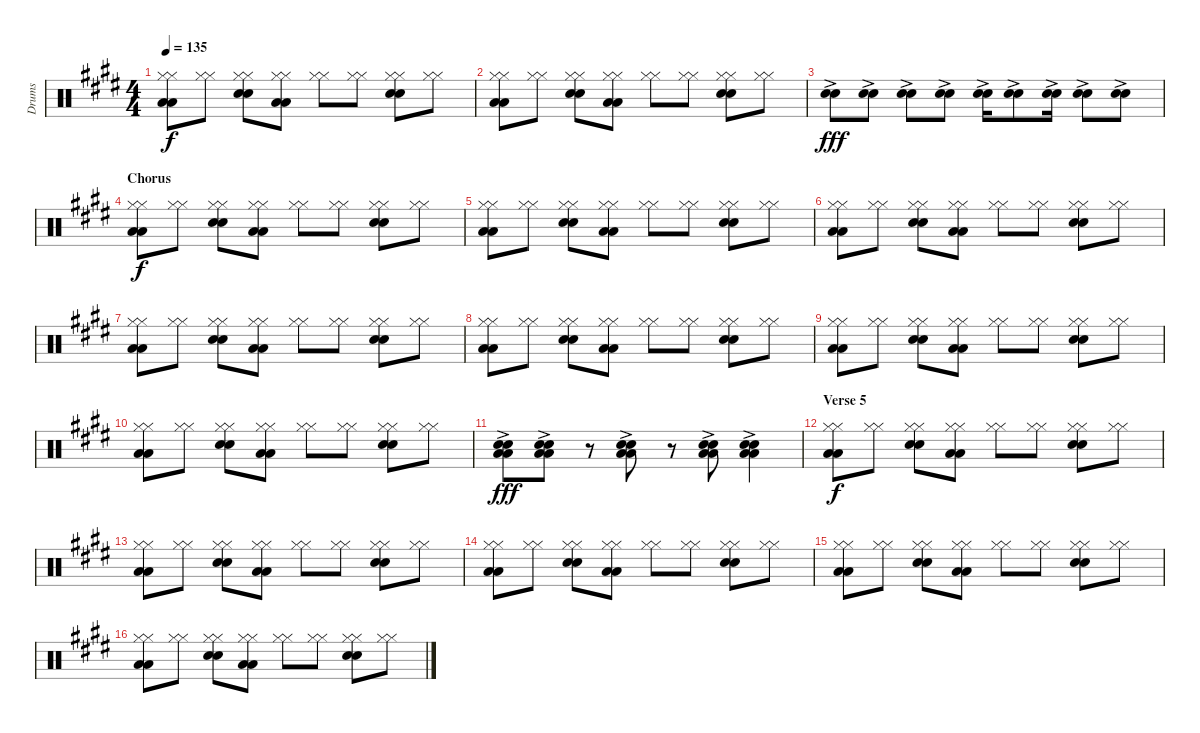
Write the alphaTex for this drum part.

\track ("Drums" "Drums") {instrument percussion}
\staff {score}
\articulation defaults
\ts (4 4)
\tempo 135
\clef neutral
\ks e
("Hi-Hat (closed)" "Hi-Hat (closed)" "Low Floor Tom (hit)" "Low Floor Tom (hit)").8{dy f} ("Hi-Hat (closed)" "Hi-Hat (closed)").8 ("Hi-Hat (closed)" "Hi-Hat (closed)" "Electric Snare (hit)" "Electric Snare (hit)").8 ("Hi-Hat (closed)" "Hi-Hat (closed)" "Low Floor Tom (hit)" "Low Floor Tom (hit)").8 ("Hi-Hat (closed)" "Hi-Hat (closed)").8 ("Hi-Hat (closed)" "Hi-Hat (closed)").8 ("Hi-Hat (closed)" "Hi-Hat (closed)" "Electric Snare (hit)" "Electric Snare (hit)").8 ("Hi-Hat (closed)" "Hi-Hat (closed)").8 |
("Hi-Hat (closed)" "Hi-Hat (closed)" "Low Floor Tom (hit)" "Low Floor Tom (hit)").8 ("Hi-Hat (closed)" "Hi-Hat (closed)").8 ("Hi-Hat (closed)" "Hi-Hat (closed)" "Electric Snare (hit)" "Electric Snare (hit)").8 ("Hi-Hat (closed)" "Hi-Hat (closed)" "Low Floor Tom (hit)" "Low Floor Tom (hit)").8 ("Hi-Hat (closed)" "Hi-Hat (closed)").8 ("Hi-Hat (closed)" "Hi-Hat (closed)").8 ("Hi-Hat (closed)" "Hi-Hat (closed)" "Electric Snare (hit)" "Electric Snare (hit)").8 ("Hi-Hat (closed)" "Hi-Hat (closed)").8 |
("Electric Snare (hit)"{ac} "Electric Snare (hit)"{ac}).8{dy fff} ("Electric Snare (hit)"{ac} "Electric Snare (hit)"{ac}).8 ("Electric Snare (hit)"{ac} "Electric Snare (hit)"{ac}).8 ("Electric Snare (hit)"{ac} "Electric Snare (hit)"{ac}).8 ("Electric Snare (hit)"{ac} "Electric Snare (hit)"{ac}).16 ("Electric Snare (hit)"{ac} "Electric Snare (hit)"{ac}).8 ("Electric Snare (hit)"{ac} "Electric Snare (hit)"{ac}).16 ("Electric Snare (hit)"{ac} "Electric Snare (hit)"{ac}).8 ("Electric Snare (hit)"{ac} "Electric Snare (hit)"{ac}).8 |
\section ("" "Chorus")
("Hi-Hat (closed)" "Hi-Hat (closed)" "Low Floor Tom (hit)" "Low Floor Tom (hit)").8{dy f} ("Hi-Hat (closed)" "Hi-Hat (closed)").8 ("Hi-Hat (closed)" "Hi-Hat (closed)" "Electric Snare (hit)" "Electric Snare (hit)").8 ("Hi-Hat (closed)" "Hi-Hat (closed)" "Low Floor Tom (hit)" "Low Floor Tom (hit)").8 ("Hi-Hat (closed)" "Hi-Hat (closed)").8 ("Hi-Hat (closed)" "Hi-Hat (closed)").8 ("Hi-Hat (closed)" "Hi-Hat (closed)" "Electric Snare (hit)" "Electric Snare (hit)").8 ("Hi-Hat (closed)" "Hi-Hat (closed)").8 |
("Hi-Hat (closed)" "Hi-Hat (closed)" "Low Floor Tom (hit)" "Low Floor Tom (hit)").8 ("Hi-Hat (closed)" "Hi-Hat (closed)").8 ("Hi-Hat (closed)" "Hi-Hat (closed)" "Electric Snare (hit)" "Electric Snare (hit)").8 ("Hi-Hat (closed)" "Hi-Hat (closed)" "Low Floor Tom (hit)" "Low Floor Tom (hit)").8 ("Hi-Hat (closed)" "Hi-Hat (closed)").8 ("Hi-Hat (closed)" "Hi-Hat (closed)").8 ("Hi-Hat (closed)" "Hi-Hat (closed)" "Electric Snare (hit)" "Electric Snare (hit)").8 ("Hi-Hat (closed)" "Hi-Hat (closed)").8 |
("Hi-Hat (closed)" "Hi-Hat (closed)" "Low Floor Tom (hit)" "Low Floor Tom (hit)").8 ("Hi-Hat (closed)" "Hi-Hat (closed)").8 ("Hi-Hat (closed)" "Hi-Hat (closed)" "Electric Snare (hit)" "Electric Snare (hit)").8 ("Hi-Hat (closed)" "Hi-Hat (closed)" "Low Floor Tom (hit)" "Low Floor Tom (hit)").8 ("Hi-Hat (closed)" "Hi-Hat (closed)").8 ("Hi-Hat (closed)" "Hi-Hat (closed)").8 ("Hi-Hat (closed)" "Hi-Hat (closed)" "Electric Snare (hit)" "Electric Snare (hit)").8 ("Hi-Hat (closed)" "Hi-Hat (closed)").8 |
("Hi-Hat (closed)" "Hi-Hat (closed)" "Low Floor Tom (hit)" "Low Floor Tom (hit)").8 ("Hi-Hat (closed)" "Hi-Hat (closed)").8 ("Hi-Hat (closed)" "Hi-Hat (closed)" "Electric Snare (hit)" "Electric Snare (hit)").8 ("Hi-Hat (closed)" "Hi-Hat (closed)" "Low Floor Tom (hit)" "Low Floor Tom (hit)").8 ("Hi-Hat (closed)" "Hi-Hat (closed)").8 ("Hi-Hat (closed)" "Hi-Hat (closed)").8 ("Hi-Hat (closed)" "Hi-Hat (closed)" "Electric Snare (hit)" "Electric Snare (hit)").8 ("Hi-Hat (closed)" "Hi-Hat (closed)").8 |
("Hi-Hat (closed)" "Hi-Hat (closed)" "Low Floor Tom (hit)" "Low Floor Tom (hit)").8 ("Hi-Hat (closed)" "Hi-Hat (closed)").8 ("Hi-Hat (closed)" "Hi-Hat (closed)" "Electric Snare (hit)" "Electric Snare (hit)").8 ("Hi-Hat (closed)" "Hi-Hat (closed)" "Low Floor Tom (hit)" "Low Floor Tom (hit)").8 ("Hi-Hat (closed)" "Hi-Hat (closed)").8 ("Hi-Hat (closed)" "Hi-Hat (closed)").8 ("Hi-Hat (closed)" "Hi-Hat (closed)" "Electric Snare (hit)" "Electric Snare (hit)").8 ("Hi-Hat (closed)" "Hi-Hat (closed)").8 |
("Hi-Hat (closed)" "Hi-Hat (closed)" "Low Floor Tom (hit)" "Low Floor Tom (hit)").8 ("Hi-Hat (closed)" "Hi-Hat (closed)").8 ("Hi-Hat (closed)" "Hi-Hat (closed)" "Electric Snare (hit)" "Electric Snare (hit)").8 ("Hi-Hat (closed)" "Hi-Hat (closed)" "Low Floor Tom (hit)" "Low Floor Tom (hit)").8 ("Hi-Hat (closed)" "Hi-Hat (closed)").8 ("Hi-Hat (closed)" "Hi-Hat (closed)").8 ("Hi-Hat (closed)" "Hi-Hat (closed)" "Electric Snare (hit)" "Electric Snare (hit)").8 ("Hi-Hat (closed)" "Hi-Hat (closed)").8 |
("Hi-Hat (closed)" "Hi-Hat (closed)" "Low Floor Tom (hit)" "Low Floor Tom (hit)").8 ("Hi-Hat (closed)" "Hi-Hat (closed)").8 ("Hi-Hat (closed)" "Hi-Hat (closed)" "Electric Snare (hit)" "Electric Snare (hit)").8 ("Hi-Hat (closed)" "Hi-Hat (closed)" "Low Floor Tom (hit)" "Low Floor Tom (hit)").8 ("Hi-Hat (closed)" "Hi-Hat (closed)").8 ("Hi-Hat (closed)" "Hi-Hat (closed)").8 ("Hi-Hat (closed)" "Hi-Hat (closed)" "Electric Snare (hit)" "Electric Snare (hit)").8 ("Hi-Hat (closed)" "Hi-Hat (closed)").8 |
("Low Tom (hit)"{ac} "Low Tom (hit)"{ac} "Electric Snare (hit)"{ac} "Electric Snare (hit)"{ac}).8{dy fff} ("Low Tom (hit)"{ac} "Low Tom (hit)"{ac} "Electric Snare (hit)"{ac} "Electric Snare (hit)"{ac}).8 r.8 ("Low Tom (hit)"{ac} "Low Tom (hit)"{ac} "Electric Snare (hit)"{ac} "Electric Snare (hit)"{ac}).8 r.8 ("Low Tom (hit)"{ac} "Low Tom (hit)"{ac} "Electric Snare (hit)"{ac} "Electric Snare (hit)"{ac}).8 ("Low Tom (hit)"{ac} "Low Tom (hit)"{ac} "Electric Snare (hit)"{ac} "Electric Snare (hit)"{ac}).4 |
\section ("" "Verse 5")
("Hi-Hat (closed)" "Hi-Hat (closed)" "Low Floor Tom (hit)" "Low Floor Tom (hit)").8{dy f} ("Hi-Hat (closed)" "Hi-Hat (closed)").8 ("Hi-Hat (closed)" "Hi-Hat (closed)" "Electric Snare (hit)" "Electric Snare (hit)").8 ("Hi-Hat (closed)" "Hi-Hat (closed)" "Low Floor Tom (hit)" "Low Floor Tom (hit)").8 ("Hi-Hat (closed)" "Hi-Hat (closed)").8 ("Hi-Hat (closed)" "Hi-Hat (closed)").8 ("Hi-Hat (closed)" "Hi-Hat (closed)" "Electric Snare (hit)" "Electric Snare (hit)").8 ("Hi-Hat (closed)" "Hi-Hat (closed)").8 |
("Hi-Hat (closed)" "Hi-Hat (closed)" "Low Floor Tom (hit)" "Low Floor Tom (hit)").8 ("Hi-Hat (closed)" "Hi-Hat (closed)").8 ("Hi-Hat (closed)" "Hi-Hat (closed)" "Electric Snare (hit)" "Electric Snare (hit)").8 ("Hi-Hat (closed)" "Hi-Hat (closed)" "Low Floor Tom (hit)" "Low Floor Tom (hit)").8 ("Hi-Hat (closed)" "Hi-Hat (closed)").8 ("Hi-Hat (closed)" "Hi-Hat (closed)").8 ("Hi-Hat (closed)" "Hi-Hat (closed)" "Electric Snare (hit)" "Electric Snare (hit)").8 ("Hi-Hat (closed)" "Hi-Hat (closed)").8 |
("Hi-Hat (closed)" "Hi-Hat (closed)" "Low Floor Tom (hit)" "Low Floor Tom (hit)").8 ("Hi-Hat (closed)" "Hi-Hat (closed)").8 ("Hi-Hat (closed)" "Hi-Hat (closed)" "Electric Snare (hit)" "Electric Snare (hit)").8 ("Hi-Hat (closed)" "Hi-Hat (closed)" "Low Floor Tom (hit)" "Low Floor Tom (hit)").8 ("Hi-Hat (closed)" "Hi-Hat (closed)").8 ("Hi-Hat (closed)" "Hi-Hat (closed)").8 ("Hi-Hat (closed)" "Hi-Hat (closed)" "Electric Snare (hit)" "Electric Snare (hit)").8 ("Hi-Hat (closed)" "Hi-Hat (closed)").8 |
("Hi-Hat (closed)" "Hi-Hat (closed)" "Low Floor Tom (hit)" "Low Floor Tom (hit)").8 ("Hi-Hat (closed)" "Hi-Hat (closed)").8 ("Hi-Hat (closed)" "Hi-Hat (closed)" "Electric Snare (hit)" "Electric Snare (hit)").8 ("Hi-Hat (closed)" "Hi-Hat (closed)" "Low Floor Tom (hit)" "Low Floor Tom (hit)").8 ("Hi-Hat (closed)" "Hi-Hat (closed)").8 ("Hi-Hat (closed)" "Hi-Hat (closed)").8 ("Hi-Hat (closed)" "Hi-Hat (closed)" "Electric Snare (hit)" "Electric Snare (hit)").8 ("Hi-Hat (closed)" "Hi-Hat (closed)").8 |
("Hi-Hat (closed)" "Hi-Hat (closed)" "Low Floor Tom (hit)" "Low Floor Tom (hit)").8 ("Hi-Hat (closed)" "Hi-Hat (closed)").8 ("Hi-Hat (closed)" "Hi-Hat (closed)" "Electric Snare (hit)" "Electric Snare (hit)").8 ("Hi-Hat (closed)" "Hi-Hat (closed)" "Low Floor Tom (hit)" "Low Floor Tom (hit)").8 ("Hi-Hat (closed)" "Hi-Hat (closed)").8 ("Hi-Hat (closed)" "Hi-Hat (closed)").8 ("Hi-Hat (closed)" "Hi-Hat (closed)" "Electric Snare (hit)" "Electric Snare (hit)").8 ("Hi-Hat (closed)" "Hi-Hat (closed)").8
